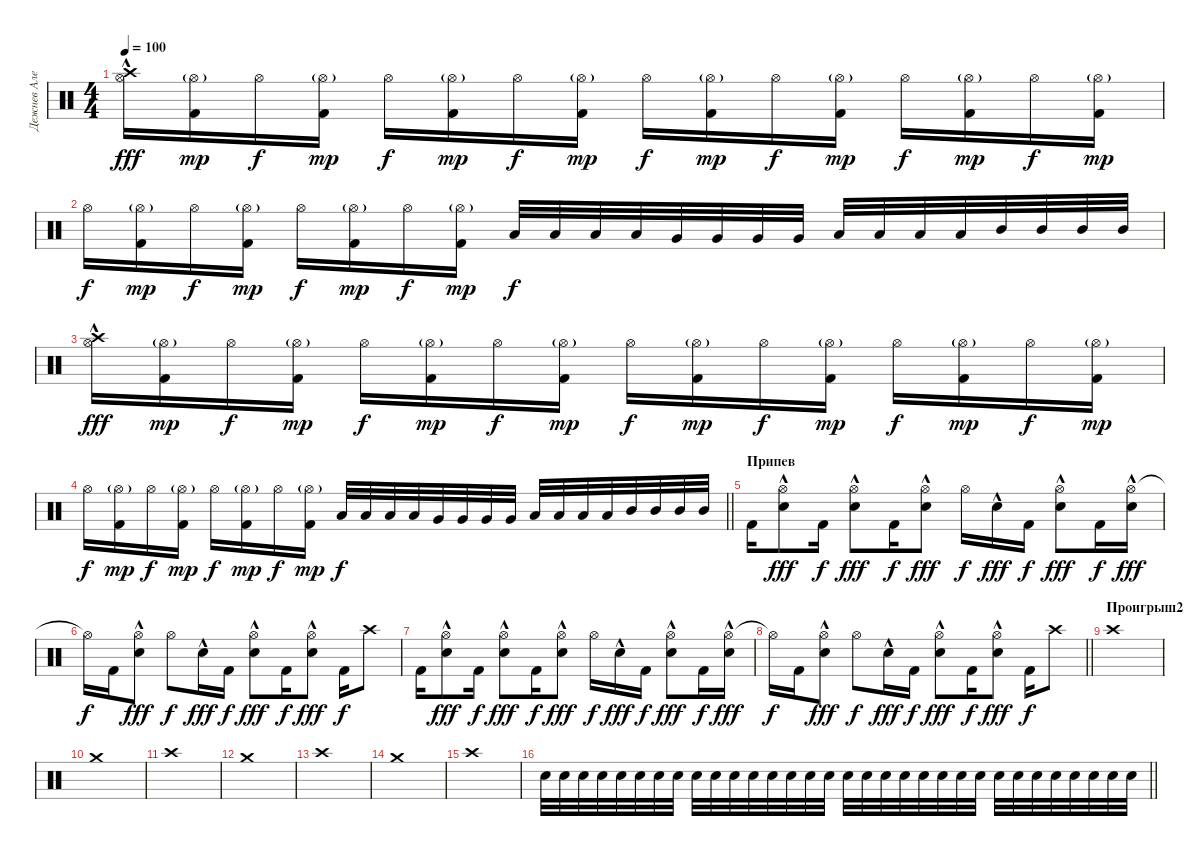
\track ("Дежнев Алексей - аккустические барабаны" "Дежнев Але") {instrument percussion}
\staff {score}
\articulation defaults
\ts (4 4)
\tempo 100
\clef neutral
\ks c
("Hi-Hat (open)" "Crash high (hit)"{hac}).16{dy fff} ("Hi-Hat (open)"{g} "Kick (hit) 2").16{dy mp} "Hi-Hat (open)".16{dy f} ("Hi-Hat (open)"{g} "Kick (hit) 2").16{dy mp} "Hi-Hat (open)".16{dy f} ("Hi-Hat (open)"{g} "Kick (hit) 2").16{dy mp} "Hi-Hat (open)".16{dy f} ("Hi-Hat (open)"{g} "Kick (hit) 2").16{dy mp} "Hi-Hat (open)".16{dy f} ("Hi-Hat (open)"{g} "Kick (hit) 2").16{dy mp} "Hi-Hat (open)".16{dy f} ("Hi-Hat (open)"{g} "Kick (hit) 2").16{dy mp} "Hi-Hat (open)".16{dy f} ("Hi-Hat (open)"{g} "Kick (hit) 2").16{dy mp} "Hi-Hat (open)".16{dy f} ("Hi-Hat (open)"{g} "Kick (hit) 2").16{dy mp} |
"Hi-Hat (open)".16{dy f} ("Hi-Hat (open)"{g} "Kick (hit) 2").16{dy mp} "Hi-Hat (open)".16{dy f} ("Hi-Hat (open)"{g} "Kick (hit) 2").16{dy mp} "Hi-Hat (open)".16{dy f} ("Hi-Hat (open)"{g} "Kick (hit) 2").16{dy mp} "Hi-Hat (open)".16{dy f} ("Hi-Hat (open)"{g} "Kick (hit) 2").16{dy mp} "Low Floor Tom (hit)".32{dy f} "Low Floor Tom (hit)".32 "Low Floor Tom (hit)".32 "Low Floor Tom (hit)".32 "Very Low Tom (hit)".32 "Very Low Tom (hit)".32 "Very Low Tom (hit)".32 "Very Low Tom (hit)".32 "Low Tom (hit)".32 "Low Tom (hit)".32 "Low Tom (hit)".32 "Low Tom (hit)".32 "Mid Tom (hit)".32 "Mid Tom (hit)".32 "Mid Tom (hit)".32 "Mid Tom (hit)".32 |
("Hi-Hat (open)" "Crash high (hit)"{hac}).16{dy fff} ("Hi-Hat (open)"{g} "Kick (hit) 2").16{dy mp} "Hi-Hat (open)".16{dy f} ("Hi-Hat (open)"{g} "Kick (hit) 2").16{dy mp} "Hi-Hat (open)".16{dy f} ("Hi-Hat (open)"{g} "Kick (hit) 2").16{dy mp} "Hi-Hat (open)".16{dy f} ("Hi-Hat (open)"{g} "Kick (hit) 2").16{dy mp} "Hi-Hat (open)".16{dy f} ("Hi-Hat (open)"{g} "Kick (hit) 2").16{dy mp} "Hi-Hat (open)".16{dy f} ("Hi-Hat (open)"{g} "Kick (hit) 2").16{dy mp} "Hi-Hat (open)".16{dy f} ("Hi-Hat (open)"{g} "Kick (hit) 2").16{dy mp} "Hi-Hat (open)".16{dy f} ("Hi-Hat (open)"{g} "Kick (hit) 2").16{dy mp} |
\barLineRight lightlight "Hi-Hat (open)".16{dy f}
("Hi-Hat (open)"{g} "Kick (hit) 2").16{dy mp} "Hi-Hat (open)".16{dy f} ("Hi-Hat (open)"{g} "Kick (hit) 2").16{dy mp} "Hi-Hat (open)".16{dy f} ("Hi-Hat (open)"{g} "Kick (hit) 2").16{dy mp} "Hi-Hat (open)".16{dy f} ("Hi-Hat (open)"{g} "Kick (hit) 2").16{dy mp} "Low Floor Tom (hit)".32{dy f} "Low Floor Tom (hit)".32 "Low Floor Tom (hit)".32 "Low Floor Tom (hit)".32 "Very Low Tom (hit)".32 "Very Low Tom (hit)".32 "Very Low Tom (hit)".32 "Very Low Tom (hit)".32 "Low Tom (hit)".32 "Low Tom (hit)".32 "Low Tom (hit)".32 "Low Tom (hit)".32 "Mid Tom (hit)".32 "Mid Tom (hit)".32 "Mid Tom (hit)".32 "Mid Tom (hit)".32 |
\section ("" "Припев")
"Kick (hit) 2".16 ("Hi-Hat (open)" "Snare (hit) 2"{hac}).8{dy fff} "Kick (hit) 2".16{dy f} ("Hi-Hat (open)" "Snare (hit) 2"{hac}).8{dy fff} "Kick (hit) 2".16{dy f} ("Hi-Hat (open)" "Snare (hit) 2"{hac}).8{dy fff} "Hi-Hat (open)".16{dy f} "Snare (hit) 2"{hac}.16{dy fff} "Kick (hit) 2".16{dy f} ("Hi-Hat (open)" "Snare (hit) 2"{hac}).8{dy fff} "Kick (hit) 2".16{dy f} ("Hi-Hat (open)" "Snare (hit) 2"{hac}).16{dy fff} |
"Hi-Hat (open)"{t}.16{dy f} "Kick (hit) 2".16 ("Hi-Hat (open)" "Snare (hit) 2"{hac}).8{dy fff} "Hi-Hat (open)".8{dy f} "Snare (hit) 2"{hac}.16{dy fff} "Kick (hit) 2".16{dy f} ("Hi-Hat (open)" "Snare (hit) 2"{hac}).8{dy fff} "Kick (hit) 2".16{dy f} ("Hi-Hat (open)" "Snare (hit) 2"{hac}).8{dy fff} "Kick (hit) 2".16{dy f} "Crash high (hit)".8 |
"Kick (hit) 2".16 ("Hi-Hat (open)" "Snare (hit) 2"{hac}).8{dy fff} "Kick (hit) 2".16{dy f} ("Hi-Hat (open)" "Snare (hit) 2"{hac}).8{dy fff} "Kick (hit) 2".16{dy f} ("Hi-Hat (open)" "Snare (hit) 2"{hac}).8{dy fff} "Hi-Hat (open)".16{dy f} "Snare (hit) 2"{hac}.16{dy fff} "Kick (hit) 2".16{dy f} ("Hi-Hat (open)" "Snare (hit) 2"{hac}).8{dy fff} "Kick (hit) 2".16{dy f} ("Hi-Hat (open)" "Snare (hit) 2"{hac}).16{dy fff} |
\barLineRight lightlight "Hi-Hat (open)"{t}.16{dy f} "Kick (hit) 2".16
("Hi-Hat (open)" "Snare (hit) 2"{hac}).8{dy fff} "Hi-Hat (open)".8{dy f} "Snare (hit) 2"{hac}.16{dy fff} "Kick (hit) 2".16{dy f} ("Hi-Hat (open)" "Snare (hit) 2"{hac}).8{dy fff} "Kick (hit) 2".16{dy f} ("Hi-Hat (open)" "Snare (hit) 2"{hac}).8{dy fff} "Kick (hit) 2".16{dy f} "Crash high (hit)".8 |
\section ("" "Проигрыш2")
"Crash high (hit)".1 |
"Crash medium (hit)".1 |
"Crash high (hit)".1 |
"Crash medium (hit)".1 |
"Crash high (hit)".1 |
"Crash medium (hit)".1 |
"Crash high (hit)".1{volume 0} |
\barLineRight lightlight "Snare (hit) 2".32{volume 16} "Snare (hit) 2".32 "Snare (hit) 2".32 "Snare (hit) 2".32 "Snare (hit) 2".32 "Snare (hit) 2".32 "Snare (hit) 2".32 "Snare (hit) 2".32 "Snare (hit) 2".32 "Snare (hit) 2".32 "Snare (hit) 2".32 "Snare (hit) 2".32 "Snare (hit) 2".32 "Snare (hit) 2".32 "Snare (hit) 2".32 "Snare (hit) 2".32 "Snare (hit) 2".32 "Snare (hit) 2".32 "Snare (hit) 2".32 "Snare (hit) 2".32 "Snare (hit) 2".32 "Snare (hit) 2".32 "Snare (hit) 2".32 "Snare (hit) 2".32 "Snare (hit) 2".32 "Snare (hit) 2".32 "Snare (hit) 2".32 "Snare (hit) 2".32 "Snare (hit) 2".32 "Snare (hit) 2".32 "Snare (hit) 2".32 "Snare (hit) 2".32
